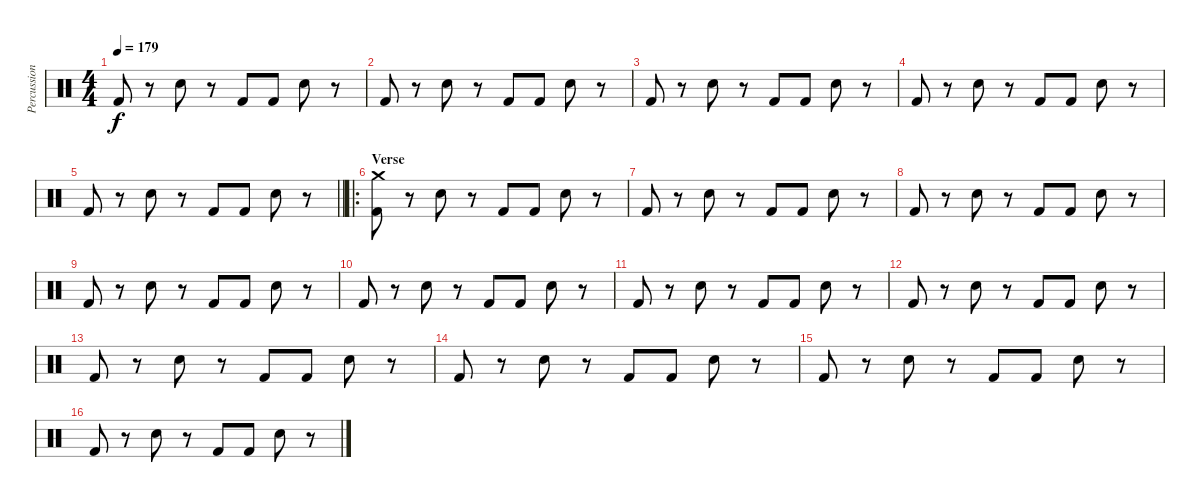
\track ("Percussion" "Percussion") {instrument percussion}
\staff {score}
\articulation defaults
\ts (4 4)
\tempo 179
\clef neutral
\ks c "Kick (hit) 2".8{dy f}
r.8 "Snare (hit) 2".8 r.8 "Kick (hit) 2".8 "Kick (hit) 2".8 "Snare (hit) 2".8 r.8 |
"Kick (hit) 2".8 r.8 "Snare (hit) 2".8 r.8 "Kick (hit) 2".8 "Kick (hit) 2".8 "Snare (hit) 2".8 r.8 |
"Kick (hit) 2".8 r.8 "Snare (hit) 2".8 r.8 "Kick (hit) 2".8 "Kick (hit) 2".8 "Snare (hit) 2".8 r.8 |
"Kick (hit) 2".8 r.8 "Snare (hit) 2".8 r.8 "Kick (hit) 2".8 "Kick (hit) 2".8 "Snare (hit) 2".8 r.8 |
\barLineRight lightlight "Kick (hit) 2".8
r.8 "Snare (hit) 2".8 r.8 "Kick (hit) 2".8 "Kick (hit) 2".8 "Snare (hit) 2".8 r.8 |
\ro
\section ("" "Verse")
("Crash medium (hit)" "Kick (hit) 2").8 r.8 "Snare (hit) 2".8 r.8 "Kick (hit) 2".8 "Kick (hit) 2".8 "Snare (hit) 2".8 r.8 |
"Kick (hit) 2".8 r.8 "Snare (hit) 2".8 r.8 "Kick (hit) 2".8 "Kick (hit) 2".8 "Snare (hit) 2".8 r.8 |
"Kick (hit) 2".8 r.8 "Snare (hit) 2".8 r.8 "Kick (hit) 2".8 "Kick (hit) 2".8 "Snare (hit) 2".8 r.8 |
"Kick (hit) 2".8 r.8 "Snare (hit) 2".8 r.8 "Kick (hit) 2".8 "Kick (hit) 2".8 "Snare (hit) 2".8 r.8 |
"Kick (hit) 2".8 r.8 "Snare (hit) 2".8 r.8 "Kick (hit) 2".8 "Kick (hit) 2".8 "Snare (hit) 2".8 r.8 |
"Kick (hit) 2".8 r.8 "Snare (hit) 2".8 r.8 "Kick (hit) 2".8 "Kick (hit) 2".8 "Snare (hit) 2".8 r.8 |
"Kick (hit) 2".8 r.8 "Snare (hit) 2".8 r.8 "Kick (hit) 2".8 "Kick (hit) 2".8 "Snare (hit) 2".8 r.8 |
"Kick (hit) 2".8 r.8 "Snare (hit) 2".8 r.8 "Kick (hit) 2".8 "Kick (hit) 2".8 "Snare (hit) 2".8 r.8 |
"Kick (hit) 2".8 r.8 "Snare (hit) 2".8 r.8 "Kick (hit) 2".8 "Kick (hit) 2".8 "Snare (hit) 2".8 r.8 |
"Kick (hit) 2".8 r.8 "Snare (hit) 2".8 r.8 "Kick (hit) 2".8 "Kick (hit) 2".8 "Snare (hit) 2".8 r.8 |
"Kick (hit) 2".8 r.8 "Snare (hit) 2".8 r.8 "Kick (hit) 2".8 "Kick (hit) 2".8 "Snare (hit) 2".8 r.8
